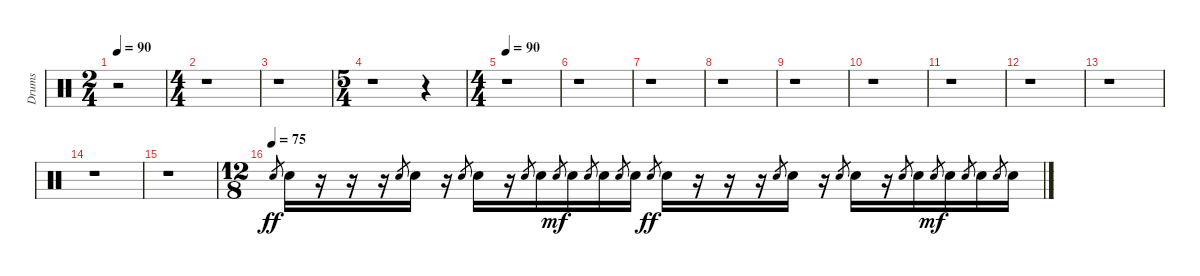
\track ("Drums" "Drums") {instrument percussion}
\staff {score}
\articulation defaults
\ts (2 4)
\tempo 90
\clef neutral
\ks c
r.2{dy ff} |
\ts (4 4)
r.1 |
r.1 |
\ts (5 4)
r.1 r.4 |
\ts (4 4)
\tempo 90
r.1 |
r.1 |
r.1 |
r.1 |
r.1 |
r.1 |
r.1 |
r.1 |
r.1 |
r.1 |
r.1{volume 0} |
\ts (12 8)
\tempo (75)
"Electric Snare (hit)".8{gr} "Electric Snare (hit)".16{volume 0} r.16{volume 11} r.16 r.16 "Electric Snare (hit)".8{gr} "Electric Snare (hit)".16 r.16 "Electric Snare (hit)".8{gr} "Electric Snare (hit)".16 r.16 "Electric Snare (hit)".8{gr} "Electric Snare (hit)".16 "Electric Snare (hit)".8{gr dy mf} "Electric Snare (hit)".16 "Electric Snare (hit)".8{gr} "Electric Snare (hit)".16 "Electric Snare (hit)".8{gr} "Electric Snare (hit)".16 "Electric Snare (hit)".8{gr dy ff} "Electric Snare (hit)".16 r.16 r.16 r.16 "Electric Snare (hit)".8{gr} "Electric Snare (hit)".16 r.16 "Electric Snare (hit)".8{gr} "Electric Snare (hit)".16 r.16 "Electric Snare (hit)".8{gr} "Electric Snare (hit)".16 "Electric Snare (hit)".8{gr dy mf} "Electric Snare (hit)".16 "Electric Snare (hit)".8{gr} "Electric Snare (hit)".16 "Electric Snare (hit)".8{gr} "Electric Snare (hit)".16
